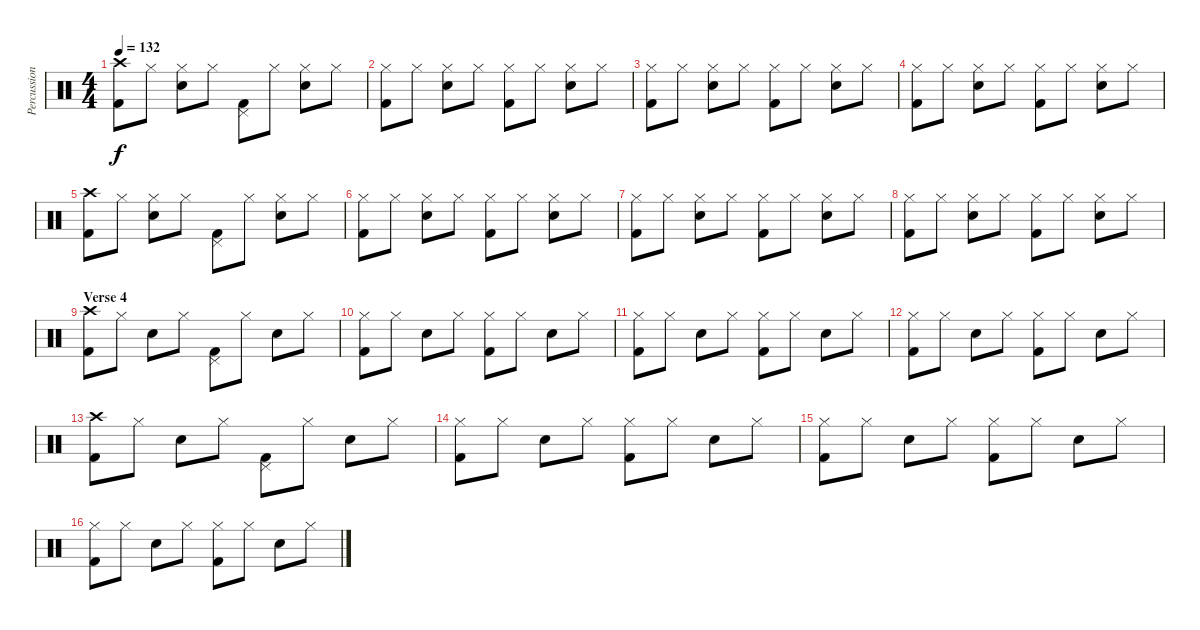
\track ("Percussion" "Percussion") {instrument percussion}
\staff {score}
\articulation defaults
\ts (4 4)
\tempo 132
\clef neutral
\ks c
("Crash high (hit)" "Kick (hit) 2").8{dy f} "Hi-Hat (closed)".8 ("Hi-Hat (closed)" "Snare (hit) 2").8 "Hi-Hat (closed)".8 ("Pedal Hi-Hat (hit)" "Kick (hit) 2").8 "Hi-Hat (closed)".8 ("Hi-Hat (closed)" "Snare (hit) 2").8 "Hi-Hat (closed)".8 |
("Hi-Hat (closed)" "Kick (hit) 2").8 "Hi-Hat (closed)".8 ("Hi-Hat (closed)" "Snare (hit) 2").8 "Hi-Hat (closed)".8 ("Hi-Hat (closed)" "Kick (hit) 2").8 "Hi-Hat (closed)".8 ("Hi-Hat (closed)" "Snare (hit) 2").8 "Hi-Hat (closed)".8 |
("Hi-Hat (closed)" "Kick (hit) 2").8 "Hi-Hat (closed)".8 ("Hi-Hat (closed)" "Snare (hit) 2").8 "Hi-Hat (closed)".8 ("Hi-Hat (closed)" "Kick (hit) 2").8 "Hi-Hat (closed)".8 ("Hi-Hat (closed)" "Snare (hit) 2").8 "Hi-Hat (closed)".8 |
("Hi-Hat (closed)" "Kick (hit) 2").8 "Hi-Hat (closed)".8 ("Hi-Hat (closed)" "Snare (hit) 2").8 "Hi-Hat (closed)".8 ("Hi-Hat (closed)" "Kick (hit) 2").8 "Hi-Hat (closed)".8 ("Hi-Hat (closed)" "Snare (hit) 2").8 "Hi-Hat (closed)".8 |
("Crash high (hit)" "Kick (hit) 2").8 "Hi-Hat (closed)".8 ("Hi-Hat (closed)" "Snare (hit) 2").8 "Hi-Hat (closed)".8 ("Pedal Hi-Hat (hit)" "Kick (hit) 2").8 "Hi-Hat (closed)".8 ("Hi-Hat (closed)" "Snare (hit) 2").8 "Hi-Hat (closed)".8 |
("Hi-Hat (closed)" "Kick (hit) 2").8 "Hi-Hat (closed)".8 ("Hi-Hat (closed)" "Snare (hit) 2").8 "Hi-Hat (closed)".8 ("Hi-Hat (closed)" "Kick (hit) 2").8 "Hi-Hat (closed)".8 ("Hi-Hat (closed)" "Snare (hit) 2").8 "Hi-Hat (closed)".8 |
("Hi-Hat (closed)" "Kick (hit) 2").8 "Hi-Hat (closed)".8 ("Hi-Hat (closed)" "Snare (hit) 2").8 "Hi-Hat (closed)".8 ("Hi-Hat (closed)" "Kick (hit) 2").8 "Hi-Hat (closed)".8 ("Hi-Hat (closed)" "Snare (hit) 2").8 "Hi-Hat (closed)".8 |
("Hi-Hat (closed)" "Kick (hit) 2").8 "Hi-Hat (closed)".8 ("Hi-Hat (closed)" "Snare (hit) 2").8 "Hi-Hat (closed)".8 ("Hi-Hat (closed)" "Kick (hit) 2").8 "Hi-Hat (closed)".8 ("Hi-Hat (closed)" "Snare (hit) 2").8 "Hi-Hat (closed)".8 |
\section ("" "Verse 4")
("Crash high (hit)" "Kick (hit) 2").8 "Hi-Hat (closed)".8 "Snare (hit) 2".8 "Hi-Hat (closed)".8 ("Pedal Hi-Hat (hit)" "Kick (hit) 2").8 "Hi-Hat (closed)".8 "Snare (hit) 2".8 "Hi-Hat (closed)".8 |
("Hi-Hat (closed)" "Kick (hit) 2").8 "Hi-Hat (closed)".8 "Snare (hit) 2".8 "Hi-Hat (closed)".8 ("Hi-Hat (closed)" "Kick (hit) 2").8 "Hi-Hat (closed)".8 "Snare (hit) 2".8 "Hi-Hat (closed)".8 |
("Hi-Hat (closed)" "Kick (hit) 2").8 "Hi-Hat (closed)".8 "Snare (hit) 2".8 "Hi-Hat (closed)".8 ("Hi-Hat (closed)" "Kick (hit) 2").8 "Hi-Hat (closed)".8 "Snare (hit) 2".8 "Hi-Hat (closed)".8 |
("Hi-Hat (closed)" "Kick (hit) 2").8 "Hi-Hat (closed)".8 "Snare (hit) 2".8 "Hi-Hat (closed)".8 ("Hi-Hat (closed)" "Kick (hit) 2").8 "Hi-Hat (closed)".8 "Snare (hit) 2".8 "Hi-Hat (closed)".8 |
("Crash high (hit)" "Kick (hit) 2").8 "Hi-Hat (closed)".8 "Snare (hit) 2".8 "Hi-Hat (closed)".8 ("Pedal Hi-Hat (hit)" "Kick (hit) 2").8 "Hi-Hat (closed)".8 "Snare (hit) 2".8 "Hi-Hat (closed)".8 |
("Hi-Hat (closed)" "Kick (hit) 2").8 "Hi-Hat (closed)".8 "Snare (hit) 2".8 "Hi-Hat (closed)".8 ("Hi-Hat (closed)" "Kick (hit) 2").8 "Hi-Hat (closed)".8 "Snare (hit) 2".8 "Hi-Hat (closed)".8 |
("Hi-Hat (closed)" "Kick (hit) 2").8 "Hi-Hat (closed)".8 "Snare (hit) 2".8 "Hi-Hat (closed)".8 ("Hi-Hat (closed)" "Kick (hit) 2").8 "Hi-Hat (closed)".8 "Snare (hit) 2".8 "Hi-Hat (closed)".8 |
("Hi-Hat (closed)" "Kick (hit) 2").8 "Hi-Hat (closed)".8 "Snare (hit) 2".8 "Hi-Hat (closed)".8 ("Hi-Hat (closed)" "Kick (hit) 2").8 "Hi-Hat (closed)".8 "Snare (hit) 2".8 "Hi-Hat (closed)".8
